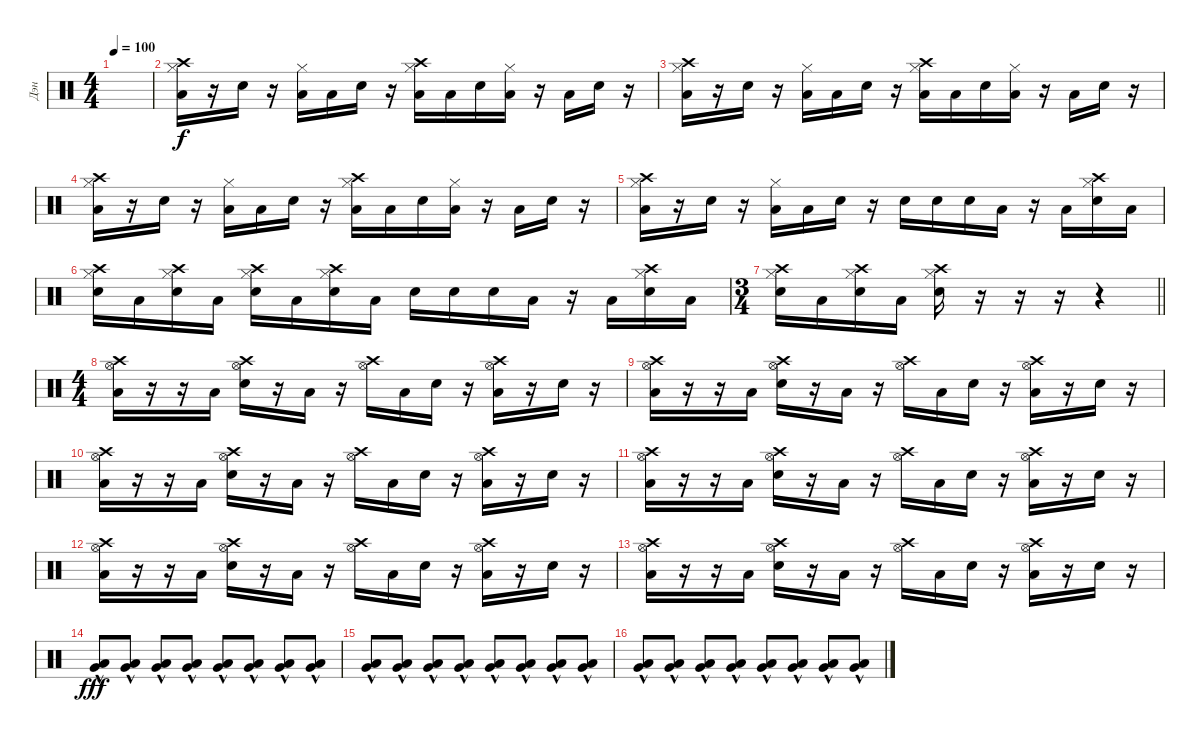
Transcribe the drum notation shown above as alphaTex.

\track ("Дэн" "Дэн") {instrument percussion}
\staff {score}
\articulation defaults
\ts (4 4)
\tempo 100
\clef neutral
\ks c
|
("Hi-Hat (closed)" "Low Floor Tom (hit)" "Crash high (hit)").16 r.16 "Electric Snare (hit)".16 r.16 ("Hi-Hat (closed)" "Low Floor Tom (hit)").16 "Low Floor Tom (hit)".16 "Electric Snare (hit)".16 r.16 ("Hi-Hat (closed)" "Low Floor Tom (hit)" "Crash high (hit)").16 "Low Floor Tom (hit)".16 "Electric Snare (hit)".16 ("Hi-Hat (closed)" "Low Floor Tom (hit)").16 r.16 "Low Floor Tom (hit)".16 "Electric Snare (hit)".16 r.16 |
("Hi-Hat (closed)" "Low Floor Tom (hit)" "Crash high (hit)").16 r.16 "Electric Snare (hit)".16 r.16 ("Hi-Hat (closed)" "Low Floor Tom (hit)").16 "Low Floor Tom (hit)".16 "Electric Snare (hit)".16 r.16 ("Hi-Hat (closed)" "Low Floor Tom (hit)" "Crash high (hit)").16 "Low Floor Tom (hit)".16 "Electric Snare (hit)".16 ("Hi-Hat (closed)" "Low Floor Tom (hit)").16 r.16 "Low Floor Tom (hit)".16 "Electric Snare (hit)".16 r.16 |
("Hi-Hat (closed)" "Low Floor Tom (hit)" "Crash high (hit)").16 r.16 "Electric Snare (hit)".16 r.16 ("Hi-Hat (closed)" "Low Floor Tom (hit)").16 "Low Floor Tom (hit)".16 "Electric Snare (hit)".16 r.16 ("Hi-Hat (closed)" "Low Floor Tom (hit)" "Crash high (hit)").16 "Low Floor Tom (hit)".16 "Electric Snare (hit)".16 ("Hi-Hat (closed)" "Low Floor Tom (hit)").16 r.16 "Low Floor Tom (hit)".16 "Electric Snare (hit)".16 r.16 |
("Hi-Hat (closed)" "Low Floor Tom (hit)" "Crash high (hit)").16 r.16 "Electric Snare (hit)".16 r.16 ("Hi-Hat (closed)" "Low Floor Tom (hit)").16 "Low Floor Tom (hit)".16 "Electric Snare (hit)".16 r.16 "Electric Snare (hit)".16 "Electric Snare (hit)".16 "Electric Snare (hit)".16 "Low Floor Tom (hit)".16 r.16 "Low Floor Tom (hit)".16 ("Hi-Hat (closed)" "Electric Snare (hit)" "Crash high (hit)").16 "Low Floor Tom (hit)".16 |
("Hi-Hat (closed)" "Electric Snare (hit)" "Crash high (hit)").16 "Low Floor Tom (hit)".16 ("Hi-Hat (closed)" "Electric Snare (hit)" "Crash high (hit)").16 "Low Floor Tom (hit)".16 ("Hi-Hat (closed)" "Electric Snare (hit)" "Crash high (hit)").16 "Low Floor Tom (hit)".16 ("Hi-Hat (closed)" "Electric Snare (hit)" "Crash high (hit)").16 "Low Floor Tom (hit)".16 "Electric Snare (hit)".16 "Electric Snare (hit)".16 "Electric Snare (hit)".16 "Low Floor Tom (hit)".16 r.16 "Low Floor Tom (hit)".16 ("Hi-Hat (closed)" "Electric Snare (hit)" "Crash high (hit)").16 "Low Floor Tom (hit)".16 |
\ts (3 4)
\barLineRight lightlight
("Hi-Hat (closed)" "Electric Snare (hit)" "Crash high (hit)").16 "Low Floor Tom (hit)".16 ("Hi-Hat (closed)" "Electric Snare (hit)" "Crash high (hit)").16 "Low Floor Tom (hit)".16 ("Hi-Hat (closed)" "Electric Snare (hit)" "Crash high (hit)").16 r.16 r.16 r.16 r.4 |
\ts (4 4)
("Hi-Hat (open)" "Low Floor Tom (hit)" "Crash high (hit)").16 r.16 r.16 "Low Floor Tom (hit)".16 ("Hi-Hat (open)" "Electric Snare (hit)" "Crash high (hit)").16 r.16 "Low Floor Tom (hit)".16 r.16 ("Hi-Hat (open)" "Crash high (hit)").16 "Low Floor Tom (hit)".16 "Electric Snare (hit)".16 r.16 ("Hi-Hat (open)" "Low Floor Tom (hit)" "Crash high (hit)").16 r.16 "Electric Snare (hit)".16 r.16 |
("Hi-Hat (open)" "Low Floor Tom (hit)" "Crash high (hit)").16 r.16 r.16 "Low Floor Tom (hit)".16 ("Hi-Hat (open)" "Electric Snare (hit)" "Crash high (hit)").16 r.16 "Low Floor Tom (hit)".16 r.16 ("Hi-Hat (open)" "Crash high (hit)").16 "Low Floor Tom (hit)".16 "Electric Snare (hit)".16 r.16 ("Hi-Hat (open)" "Low Floor Tom (hit)" "Crash high (hit)").16 r.16 "Electric Snare (hit)".16 r.16 |
("Hi-Hat (open)" "Low Floor Tom (hit)" "Crash high (hit)").16 r.16 r.16 "Low Floor Tom (hit)".16 ("Hi-Hat (open)" "Electric Snare (hit)" "Crash high (hit)").16 r.16 "Low Floor Tom (hit)".16 r.16 ("Hi-Hat (open)" "Crash high (hit)").16 "Low Floor Tom (hit)".16 "Electric Snare (hit)".16 r.16 ("Hi-Hat (open)" "Low Floor Tom (hit)" "Crash high (hit)").16 r.16 "Electric Snare (hit)".16 r.16 |
("Hi-Hat (open)" "Low Floor Tom (hit)" "Crash high (hit)").16 r.16 r.16 "Low Floor Tom (hit)".16 ("Hi-Hat (open)" "Electric Snare (hit)" "Crash high (hit)").16 r.16 "Low Floor Tom (hit)".16 r.16 ("Hi-Hat (open)" "Crash high (hit)").16 "Low Floor Tom (hit)".16 "Electric Snare (hit)".16 r.16 ("Hi-Hat (open)" "Low Floor Tom (hit)" "Crash high (hit)").16 r.16 "Electric Snare (hit)".16 r.16 |
("Hi-Hat (open)" "Low Floor Tom (hit)" "Crash high (hit)").16 r.16 r.16 "Low Floor Tom (hit)".16 ("Hi-Hat (open)" "Electric Snare (hit)" "Crash high (hit)").16 r.16 "Low Floor Tom (hit)".16 r.16 ("Hi-Hat (open)" "Crash high (hit)").16 "Low Floor Tom (hit)".16 "Electric Snare (hit)".16 r.16 ("Hi-Hat (open)" "Low Floor Tom (hit)" "Crash high (hit)").16 r.16 "Electric Snare (hit)".16 r.16 |
("Hi-Hat (open)" "Low Floor Tom (hit)" "Crash high (hit)").16 r.16 r.16 "Low Floor Tom (hit)".16 ("Hi-Hat (open)" "Electric Snare (hit)" "Crash high (hit)").16 r.16 "Low Floor Tom (hit)".16 r.16 ("Hi-Hat (open)" "Crash high (hit)").16 "Low Floor Tom (hit)".16 "Electric Snare (hit)".16 r.16 ("Hi-Hat (open)" "Low Floor Tom (hit)" "Crash high (hit)").16 r.16 "Electric Snare (hit)".16 r.16 |
("Low Floor Tom (hit)"{hac} "Very Low Tom (hit)"{hac}).8{dy fff} ("Low Floor Tom (hit)"{hac} "Very Low Tom (hit)"{hac}).8 ("Low Floor Tom (hit)"{hac} "Very Low Tom (hit)"{hac}).8 ("Low Floor Tom (hit)"{hac} "Very Low Tom (hit)"{hac}).8 ("Low Floor Tom (hit)"{hac} "Very Low Tom (hit)"{hac}).8 ("Low Floor Tom (hit)"{hac} "Very Low Tom (hit)"{hac}).8 ("Low Floor Tom (hit)"{hac} "Very Low Tom (hit)"{hac}).8 ("Low Floor Tom (hit)"{hac} "Very Low Tom (hit)"{hac}).8 |
("Low Floor Tom (hit)"{hac} "Very Low Tom (hit)"{hac}).8 ("Low Floor Tom (hit)"{hac} "Very Low Tom (hit)"{hac}).8 ("Low Floor Tom (hit)"{hac} "Very Low Tom (hit)"{hac}).8 ("Low Floor Tom (hit)"{hac} "Very Low Tom (hit)"{hac}).8 ("Low Floor Tom (hit)"{hac} "Very Low Tom (hit)"{hac}).8 ("Low Floor Tom (hit)"{hac} "Very Low Tom (hit)"{hac}).8 ("Low Floor Tom (hit)"{hac} "Very Low Tom (hit)"{hac}).8 ("Low Floor Tom (hit)"{hac} "Very Low Tom (hit)"{hac}).8 |
("Low Floor Tom (hit)"{hac} "Very Low Tom (hit)"{hac}).8 ("Low Floor Tom (hit)"{hac} "Very Low Tom (hit)"{hac}).8 ("Low Floor Tom (hit)"{hac} "Very Low Tom (hit)"{hac}).8 ("Low Floor Tom (hit)"{hac} "Very Low Tom (hit)"{hac}).8 ("Low Floor Tom (hit)"{hac} "Very Low Tom (hit)"{hac}).8 ("Low Floor Tom (hit)"{hac} "Very Low Tom (hit)"{hac}).8 ("Low Floor Tom (hit)"{hac} "Very Low Tom (hit)"{hac}).8 ("Low Floor Tom (hit)"{hac} "Very Low Tom (hit)"{hac}).8
